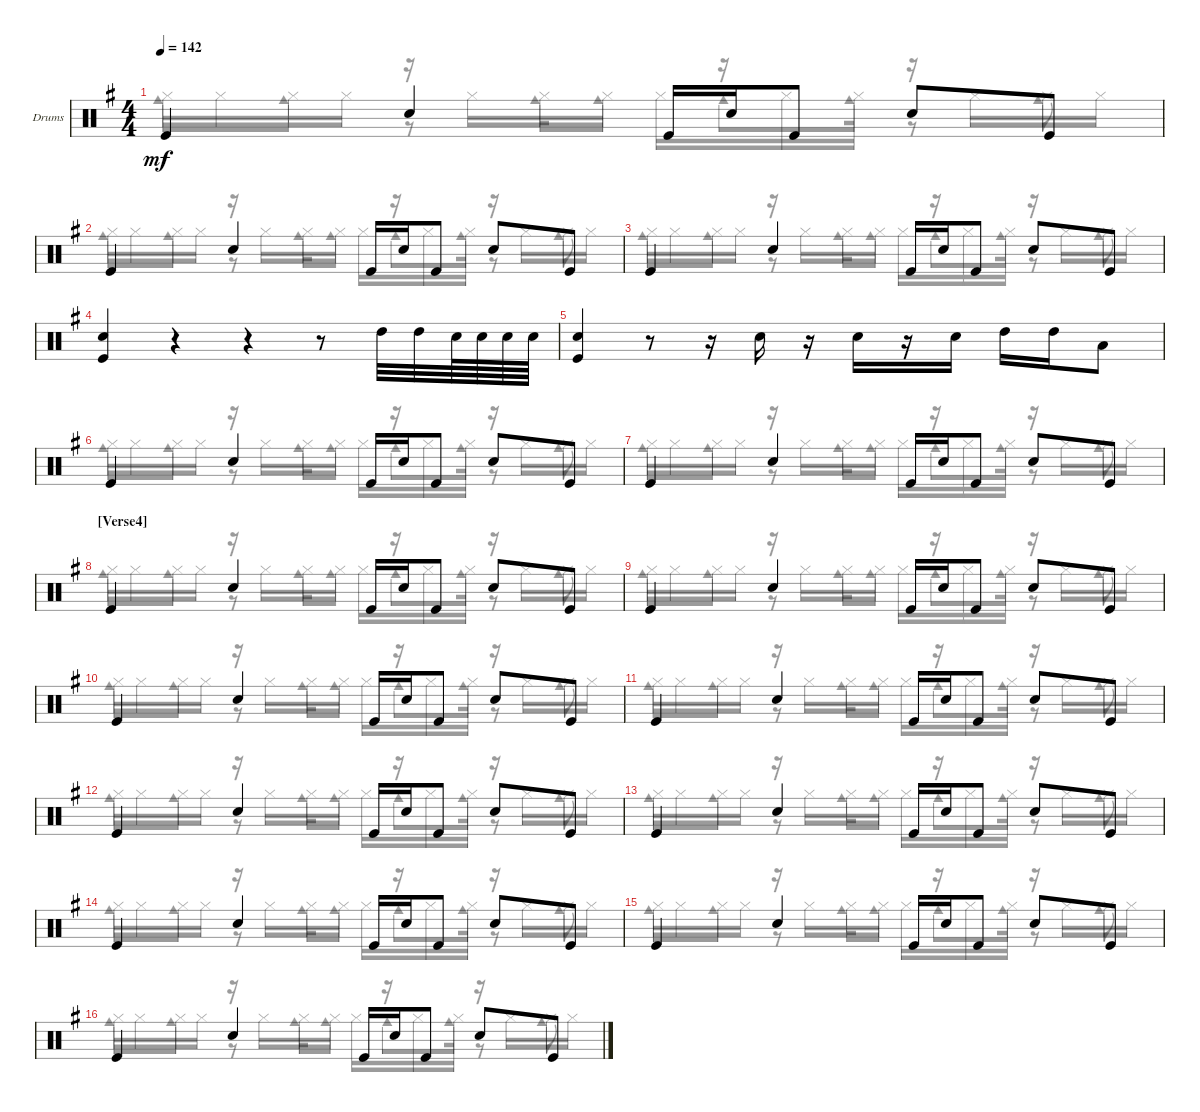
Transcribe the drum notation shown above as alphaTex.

\bracketExtendMode groupsimilarinstruments
\firstSystemTrackNameOrientation horizontal
\otherSystemsTrackNameOrientation horizontal
\track ("Drumkit" "Drums") {instrument percussion}
\staff {score}
\articulation defaults
\voice
\ts (4 4)
\tempo 142
\clef neutral
\ks eminor "Kick (hit)".4{dy mf} "Snare (hit) 2".4 "Kick (hit)".16 "Snare (hit) 2".16 "Kick (hit)".8 "Snare (hit) 2".8 "Kick (hit)".8
|
"Kick (hit)".4 "Snare (hit) 2".4 "Kick (hit)".16 "Snare (hit) 2".16 "Kick (hit)".8 "Snare (hit) 2".8 "Kick (hit)".8 |
"Kick (hit)".4 "Snare (hit) 2".4 "Kick (hit)".16 "Snare (hit) 2".16 "Kick (hit)".8 "Snare (hit) 2".8 "Kick (hit)".8 |
("Kick (hit)" "Snare (hit) 2").4 r.4 r.4 r.8 "High Tom (hit)".32 "High Tom (hit)".32 "Snare (hit) 2".64 "Snare (hit) 2".64 "Snare (hit) 2".64 "Snare (hit) 2".64 |
("Kick (hit)" "Snare (hit) 2").4 r.8 r.16 "Snare (hit) 2".16 r.16 "Snare (hit) 2".16 r.16 "Snare (hit) 2".16 "High Tom (hit)".16 "High Tom (hit)".16 "Low Tom (hit)".8 |
"Kick (hit)".4 "Snare (hit) 2".4 "Kick (hit)".16 "Snare (hit) 2".16 "Kick (hit)".8 "Snare (hit) 2".8 "Kick (hit)".8 |
"Kick (hit)".4 "Snare (hit) 2".4 "Kick (hit)".16 "Snare (hit) 2".16 "Kick (hit)".8 "Snare (hit) 2".8 "Kick (hit)".8 |
\section ("" "[Verse4] ")
"Kick (hit)".4 "Snare (hit) 2".4 "Kick (hit)".16 "Snare (hit) 2".16 "Kick (hit)".8 "Snare (hit) 2".8 "Kick (hit)".8 |
"Kick (hit)".4 "Snare (hit) 2".4 "Kick (hit)".16 "Snare (hit) 2".16 "Kick (hit)".8 "Snare (hit) 2".8 "Kick (hit)".8 |
"Kick (hit)".4 "Snare (hit) 2".4 "Kick (hit)".16 "Snare (hit) 2".16 "Kick (hit)".8 "Snare (hit) 2".8 "Kick (hit)".8 |
"Kick (hit)".4 "Snare (hit) 2".4 "Kick (hit)".16 "Snare (hit) 2".16 "Kick (hit)".8 "Snare (hit) 2".8 "Kick (hit)".8 |
"Kick (hit)".4 "Snare (hit) 2".4 "Kick (hit)".16 "Snare (hit) 2".16 "Kick (hit)".8 "Snare (hit) 2".8 "Kick (hit)".8 |
"Kick (hit)".4 "Snare (hit) 2".4 "Kick (hit)".16 "Snare (hit) 2".16 "Kick (hit)".8 "Snare (hit) 2".8 "Kick (hit)".8 |
"Kick (hit)".4 "Snare (hit) 2".4 "Kick (hit)".16 "Snare (hit) 2".16 "Kick (hit)".8 "Snare (hit) 2".8 "Kick (hit)".8 |
"Kick (hit)".4 "Snare (hit) 2".4 "Kick (hit)".16 "Snare (hit) 2".16 "Kick (hit)".8 "Snare (hit) 2".8 "Kick (hit)".8 |
"Kick (hit)".4 "Snare (hit) 2".4 "Kick (hit)".16 "Snare (hit) 2".16 "Kick (hit)".8 "Snare (hit) 2".8 "Kick (hit)".8
\voice
\clef neutral
\ottava regular
\simile none
\ks eminor "Hi-Hat (closed)".16{dy mf} "Hi-Hat (closed)".16 "Hi-Hat (closed)".16 "Hi-Hat (closed)".16
r.16 "Hi-Hat (closed)".16 "Hi-Hat (closed)".16 "Hi-Hat (closed)".16 "Hi-Hat (closed)".16 r.16 "Hi-Hat (closed)".16 "Hi-Hat (closed)".16 r.16 "Hi-Hat (closed)".16 "Hi-Hat (closed)".16 "Hi-Hat (closed)".16 |
"Hi-Hat (closed)".16 "Hi-Hat (closed)".16 "Hi-Hat (closed)".16 "Hi-Hat (closed)".16 r.16 "Hi-Hat (closed)".16 "Hi-Hat (closed)".16 "Hi-Hat (closed)".16 "Hi-Hat (closed)".16 r.16 "Hi-Hat (closed)".16 "Hi-Hat (closed)".16 r.16 "Hi-Hat (closed)".16 "Hi-Hat (closed)".16 "Hi-Hat (closed)".16 |
"Hi-Hat (closed)".16 "Hi-Hat (closed)".16 "Hi-Hat (closed)".16 "Hi-Hat (closed)".16 r.16 "Hi-Hat (closed)".16 "Hi-Hat (closed)".16 "Hi-Hat (closed)".16 "Hi-Hat (closed)".16 r.16 "Hi-Hat (closed)".16 "Hi-Hat (closed)".16 r.16 "Hi-Hat (closed)".16 "Hi-Hat (closed)".16 "Hi-Hat (closed)".16 |
|
|
"Hi-Hat (closed)".16 "Hi-Hat (closed)".16 "Hi-Hat (closed)".16 "Hi-Hat (closed)".16 r.16 "Hi-Hat (closed)".16 "Hi-Hat (closed)".16 "Hi-Hat (closed)".16 "Hi-Hat (closed)".16 r.16 "Hi-Hat (closed)".16 "Hi-Hat (closed)".16 r.16 "Hi-Hat (closed)".16 "Hi-Hat (closed)".16 "Hi-Hat (closed)".16 |
"Hi-Hat (closed)".16 "Hi-Hat (closed)".16 "Hi-Hat (closed)".16 "Hi-Hat (closed)".16 r.16 "Hi-Hat (closed)".16 "Hi-Hat (closed)".16 "Hi-Hat (closed)".16 "Hi-Hat (closed)".16 r.16 "Hi-Hat (closed)".16 "Hi-Hat (closed)".16 r.16 "Hi-Hat (closed)".16 "Hi-Hat (closed)".16 "Hi-Hat (closed)".16 |
"Hi-Hat (closed)".16 "Hi-Hat (closed)".16 "Hi-Hat (closed)".16 "Hi-Hat (closed)".16 r.16 "Hi-Hat (closed)".16 "Hi-Hat (closed)".16 "Hi-Hat (closed)".16 "Hi-Hat (closed)".16 r.16 "Hi-Hat (closed)".16 "Hi-Hat (closed)".16 r.16 "Hi-Hat (closed)".16 "Hi-Hat (closed)".16 "Hi-Hat (closed)".16 |
"Hi-Hat (closed)".16 "Hi-Hat (closed)".16 "Hi-Hat (closed)".16 "Hi-Hat (closed)".16 r.16 "Hi-Hat (closed)".16 "Hi-Hat (closed)".16 "Hi-Hat (closed)".16 "Hi-Hat (closed)".16 r.16 "Hi-Hat (closed)".16 "Hi-Hat (closed)".16 r.16 "Hi-Hat (closed)".16 "Hi-Hat (closed)".16 "Hi-Hat (closed)".16 |
"Hi-Hat (closed)".16 "Hi-Hat (closed)".16 "Hi-Hat (closed)".16 "Hi-Hat (closed)".16 r.16 "Hi-Hat (closed)".16 "Hi-Hat (closed)".16 "Hi-Hat (closed)".16 "Hi-Hat (closed)".16 r.16 "Hi-Hat (closed)".16 "Hi-Hat (closed)".16 r.16 "Hi-Hat (closed)".16 "Hi-Hat (closed)".16 "Hi-Hat (closed)".16 |
"Hi-Hat (closed)".16 "Hi-Hat (closed)".16 "Hi-Hat (closed)".16 "Hi-Hat (closed)".16 r.16 "Hi-Hat (closed)".16 "Hi-Hat (closed)".16 "Hi-Hat (closed)".16 "Hi-Hat (closed)".16 r.16 "Hi-Hat (closed)".16 "Hi-Hat (closed)".16 r.16 "Hi-Hat (closed)".16 "Hi-Hat (closed)".16 "Hi-Hat (closed)".16 |
"Hi-Hat (closed)".16 "Hi-Hat (closed)".16 "Hi-Hat (closed)".16 "Hi-Hat (closed)".16 r.16 "Hi-Hat (closed)".16 "Hi-Hat (closed)".16 "Hi-Hat (closed)".16 "Hi-Hat (closed)".16 r.16 "Hi-Hat (closed)".16 "Hi-Hat (closed)".16 r.16 "Hi-Hat (closed)".16 "Hi-Hat (closed)".16 "Hi-Hat (closed)".16 |
"Hi-Hat (closed)".16 "Hi-Hat (closed)".16 "Hi-Hat (closed)".16 "Hi-Hat (closed)".16 r.16 "Hi-Hat (closed)".16 "Hi-Hat (closed)".16 "Hi-Hat (closed)".16 "Hi-Hat (closed)".16 r.16 "Hi-Hat (closed)".16 "Hi-Hat (closed)".16 r.16 "Hi-Hat (closed)".16 "Hi-Hat (closed)".16 "Hi-Hat (closed)".16 |
"Hi-Hat (closed)".16 "Hi-Hat (closed)".16 "Hi-Hat (closed)".16 "Hi-Hat (closed)".16 r.16 "Hi-Hat (closed)".16 "Hi-Hat (closed)".16 "Hi-Hat (closed)".16 "Hi-Hat (closed)".16 r.16 "Hi-Hat (closed)".16 "Hi-Hat (closed)".16 r.16 "Hi-Hat (closed)".16 "Hi-Hat (closed)".16 "Hi-Hat (closed)".16 |
"Hi-Hat (closed)".16 "Hi-Hat (closed)".16 "Hi-Hat (closed)".16 "Hi-Hat (closed)".16 r.16 "Hi-Hat (closed)".16 "Hi-Hat (closed)".16 "Hi-Hat (closed)".16 "Hi-Hat (closed)".16 r.16 "Hi-Hat (closed)".16 "Hi-Hat (closed)".16 r.16 "Hi-Hat (closed)".16 "Hi-Hat (closed)".16 "Hi-Hat (closed)".16 |
"Hi-Hat (closed)".16 "Hi-Hat (closed)".16 "Hi-Hat (closed)".16 "Hi-Hat (closed)".16 r.16 "Hi-Hat (closed)".16 "Hi-Hat (closed)".16 "Hi-Hat (closed)".16 "Hi-Hat (closed)".16 r.16 "Hi-Hat (closed)".16 "Hi-Hat (closed)".16 r.16 "Hi-Hat (closed)".16 "Hi-Hat (closed)".16 "Hi-Hat (closed)".16
\voice
\clef neutral
\ottava regular
\simile none
\ks eminor "Cowbell medium (hit)".8{dy mf} "Cowbell medium (hit)".8
r.8 "Cowbell medium (hit)".16 "Cowbell medium (hit)".8 "Cowbell medium (hit)".8 "Cowbell medium (hit)".16 r.8 "Cowbell medium (hit)".8 |
"Cowbell medium (hit)".8 "Cowbell medium (hit)".8 r.8 "Cowbell medium (hit)".16 "Cowbell medium (hit)".8 "Cowbell medium (hit)".8 "Cowbell medium (hit)".16 r.8 "Cowbell medium (hit)".8 |
"Cowbell medium (hit)".8 "Cowbell medium (hit)".8 r.8 "Cowbell medium (hit)".16 "Cowbell medium (hit)".8 "Cowbell medium (hit)".8 "Cowbell medium (hit)".16 r.8 "Cowbell medium (hit)".8 |
|
|
"Cowbell medium (hit)".8 "Cowbell medium (hit)".8 r.8 "Cowbell medium (hit)".16 "Cowbell medium (hit)".8 "Cowbell medium (hit)".8 "Cowbell medium (hit)".16 r.8 "Cowbell medium (hit)".8 |
"Cowbell medium (hit)".8 "Cowbell medium (hit)".8 r.8 "Cowbell medium (hit)".16 "Cowbell medium (hit)".8 "Cowbell medium (hit)".8 "Cowbell medium (hit)".16 r.8 "Cowbell medium (hit)".8 |
"Cowbell medium (hit)".8 "Cowbell medium (hit)".8 r.8 "Cowbell medium (hit)".16 "Cowbell medium (hit)".8 "Cowbell medium (hit)".8 "Cowbell medium (hit)".16 r.8 "Cowbell medium (hit)".8 |
"Cowbell medium (hit)".8 "Cowbell medium (hit)".8 r.8 "Cowbell medium (hit)".16 "Cowbell medium (hit)".8 "Cowbell medium (hit)".8 "Cowbell medium (hit)".16 r.8 "Cowbell medium (hit)".8 |
"Cowbell medium (hit)".8 "Cowbell medium (hit)".8 r.8 "Cowbell medium (hit)".16 "Cowbell medium (hit)".8 "Cowbell medium (hit)".8 "Cowbell medium (hit)".16 r.8 "Cowbell medium (hit)".8 |
"Cowbell medium (hit)".8 "Cowbell medium (hit)".8 r.8 "Cowbell medium (hit)".16 "Cowbell medium (hit)".8 "Cowbell medium (hit)".8 "Cowbell medium (hit)".16 r.8 "Cowbell medium (hit)".8 |
"Cowbell medium (hit)".8 "Cowbell medium (hit)".8 r.8 "Cowbell medium (hit)".16 "Cowbell medium (hit)".8 "Cowbell medium (hit)".8 "Cowbell medium (hit)".16 r.8 "Cowbell medium (hit)".8 |
"Cowbell medium (hit)".8 "Cowbell medium (hit)".8 r.8 "Cowbell medium (hit)".16 "Cowbell medium (hit)".8 "Cowbell medium (hit)".8 "Cowbell medium (hit)".16 r.8 "Cowbell medium (hit)".8 |
"Cowbell medium (hit)".8 "Cowbell medium (hit)".8 r.8 "Cowbell medium (hit)".16 "Cowbell medium (hit)".8 "Cowbell medium (hit)".8 "Cowbell medium (hit)".16 r.8 "Cowbell medium (hit)".8 |
"Cowbell medium (hit)".8 "Cowbell medium (hit)".8 r.8 "Cowbell medium (hit)".16 "Cowbell medium (hit)".8 "Cowbell medium (hit)".8 "Cowbell medium (hit)".16 r.8 "Cowbell medium (hit)".8 |
"Cowbell medium (hit)".8 "Cowbell medium (hit)".8 r.8 "Cowbell medium (hit)".16 "Cowbell medium (hit)".8 "Cowbell medium (hit)".8 "Cowbell medium (hit)".16 r.8 "Cowbell medium (hit)".8
